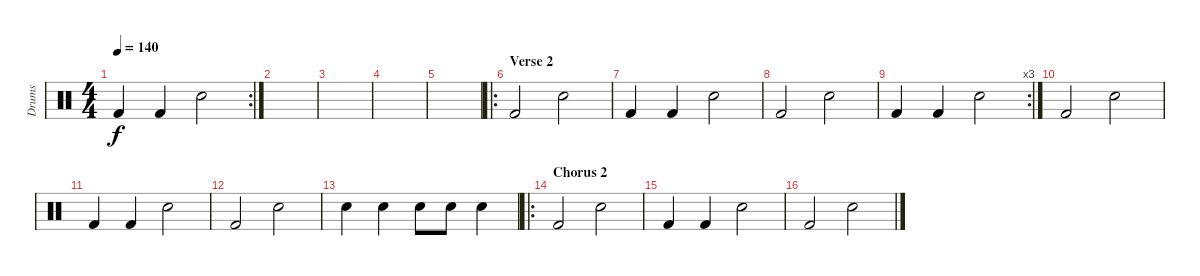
\track ("Drums" "Drums") {instrument percussion}
\staff {score}
\articulation defaults
\rc 2
\ts (4 4)
\tempo 140
\clef neutral
\ks c "Kick (hit) 2".4{dy f} "Kick (hit) 2".4 "Snare (hit) 2".2
|
|
|
|
|
\ro
\section ("" "Verse 2")
"Kick (hit) 2".2 "Snare (hit) 2".2 |
"Kick (hit) 2".4 "Kick (hit) 2".4 "Snare (hit) 2".2 |
"Kick (hit) 2".2 "Snare (hit) 2".2 |
\rc 3 "Kick (hit) 2".4 "Kick (hit) 2".4 "Snare (hit) 2".2
|
"Kick (hit) 2".2 "Snare (hit) 2".2 |
"Kick (hit) 2".4 "Kick (hit) 2".4 "Snare (hit) 2".2 |
"Kick (hit) 2".2 "Snare (hit) 2".2 |
"Snare (hit) 2".4 "Snare (hit) 2".4 "Snare (hit) 2".8 "Snare (hit) 2".8 "Snare (hit) 2".4 |
\ro
\section ("" "Chorus 2")
"Kick (hit) 2".2 "Snare (hit) 2".2 |
"Kick (hit) 2".4 "Kick (hit) 2".4 "Snare (hit) 2".2 |
"Kick (hit) 2".2 "Snare (hit) 2".2
